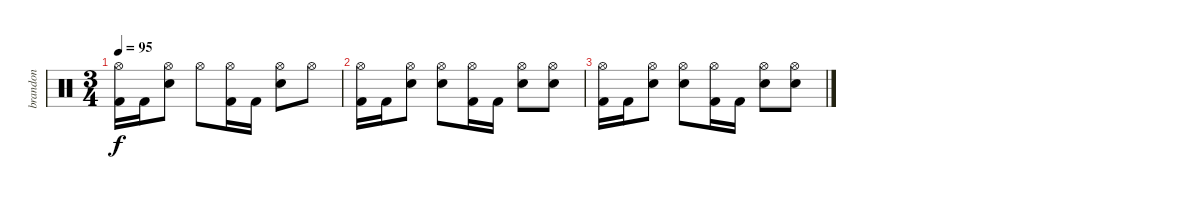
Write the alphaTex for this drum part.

\track ("brandon" "brandon") {instrument percussion}
\staff {score}
\articulation defaults
\ts (3 4)
\tempo 95
\clef neutral
\ks c
("Hi-Hat (open)" "Kick (hit) 2").16{dy f} "Kick (hit) 2".16 ("Hi-Hat (open)" "Snare (hit) 2").8 "Hi-Hat (open)".8 ("Hi-Hat (open)" "Kick (hit) 2").16 "Kick (hit) 2".16 ("Hi-Hat (open)" "Snare (hit) 2").8 "Hi-Hat (open)".8 |
("Hi-Hat (open)" "Kick (hit) 2").16 "Kick (hit) 2".16 ("Hi-Hat (open)" "Snare (hit) 2").8 ("Hi-Hat (open)" "Snare (hit) 2").8 ("Hi-Hat (open)" "Kick (hit) 2").16 "Kick (hit) 2".16 ("Hi-Hat (open)" "Snare (hit) 2").8 ("Hi-Hat (open)" "Snare (hit) 2").8 |
("Hi-Hat (open)" "Kick (hit) 2").16 "Kick (hit) 2".16 ("Hi-Hat (open)" "Snare (hit) 2").8 ("Hi-Hat (open)" "Snare (hit) 2").8 ("Hi-Hat (open)" "Kick (hit) 2").16 "Kick (hit) 2".16 ("Hi-Hat (open)" "Snare (hit) 2").8 ("Hi-Hat (open)" "Snare (hit) 2").8
